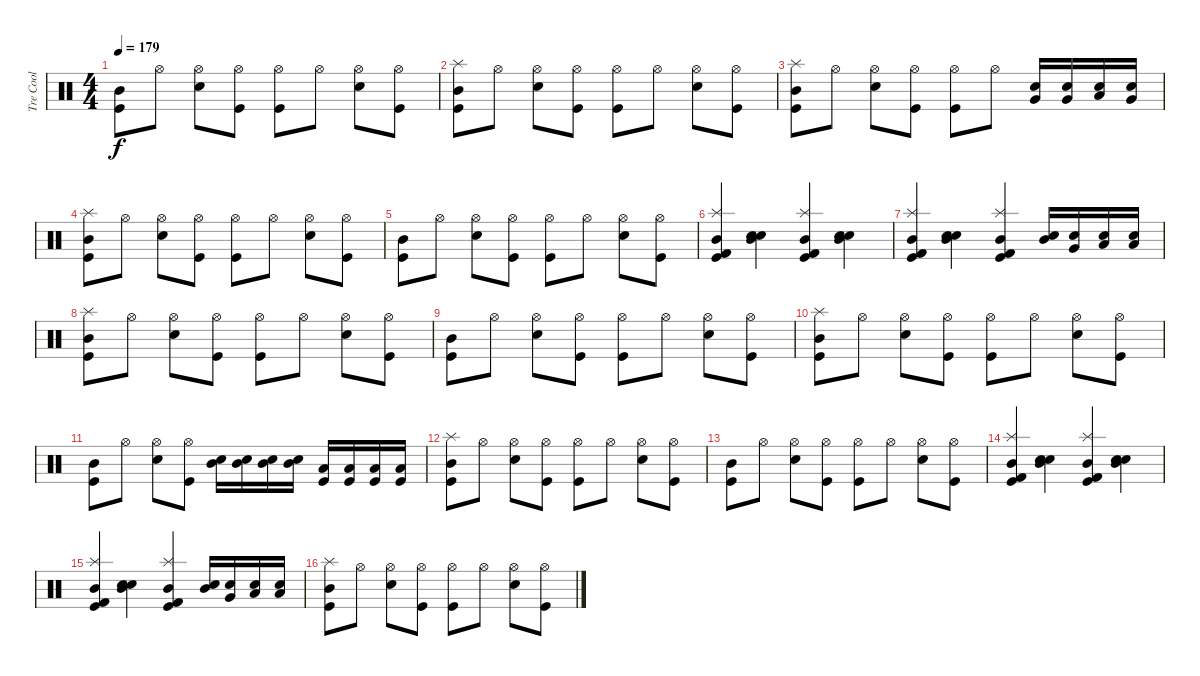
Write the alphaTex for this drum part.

\track ("Tre Cool" "Tre Cool") {instrument percussion}
\staff {score}
\articulation defaults
\ts (4 4)
\tempo 179
\clef neutral
\ks c
("Mid Tom (hit)" "Kick (hit)").8{dy f} "Hi-Hat (open)".8 ("Hi-Hat (open)" "Snare (hit) 2").8 ("Hi-Hat (open)" "Kick (hit)").8 ("Hi-Hat (open)" "Kick (hit)").8 "Hi-Hat (open)".8 ("Hi-Hat (open)" "Snare (hit) 2").8 ("Hi-Hat (open)" "Kick (hit)").8 |
("Splash (hit)" "Mid Tom (hit)" "Kick (hit)").8 "Hi-Hat (open)".8 ("Hi-Hat (open)" "Snare (hit) 2").8 ("Hi-Hat (open)" "Kick (hit)").8 ("Hi-Hat (open)" "Kick (hit)").8 "Hi-Hat (open)".8 ("Hi-Hat (open)" "Snare (hit) 2").8 ("Hi-Hat (open)" "Kick (hit)").8 |
("Splash (hit)" "Mid Tom (hit)" "Kick (hit)").8 "Hi-Hat (open)".8 ("Hi-Hat (open)" "Snare (hit) 2").8 ("Hi-Hat (open)" "Kick (hit)").8 ("Hi-Hat (open)" "Kick (hit)").8 "Hi-Hat (open)".8 ("Very Low Tom (hit)" "Snare (hit) 2").16 ("Very Low Tom (hit)" "Snare (hit) 2").16 ("Low Tom (hit)" "Snare (hit) 2").16 ("Very Low Tom (hit)" "Snare (hit) 2").16 |
("Splash (hit)" "Mid Tom (hit)" "Kick (hit)").8 "Hi-Hat (open)".8 ("Hi-Hat (open)" "Snare (hit) 2").8 ("Hi-Hat (open)" "Kick (hit)").8 ("Hi-Hat (open)" "Kick (hit)").8 "Hi-Hat (open)".8 ("Hi-Hat (open)" "Snare (hit) 2").8 ("Hi-Hat (open)" "Kick (hit)").8 |
("Mid Tom (hit)" "Kick (hit)").8 "Hi-Hat (open)".8 ("Hi-Hat (open)" "Snare (hit) 2").8 ("Hi-Hat (open)" "Kick (hit)").8 ("Hi-Hat (open)" "Kick (hit)").8 "Hi-Hat (open)".8 ("Hi-Hat (open)" "Snare (hit) 2").8 ("Hi-Hat (open)" "Kick (hit)").8 |
("Mid Tom (hit)" "Kick (hit)" "Splash (hit)" "Kick (hit) 2").4 ("Mid Tom (hit)" "Snare (hit) 2" "Electric Snare (hit)").4 ("Mid Tom (hit)" "Kick (hit)" "Splash (hit)" "Kick (hit) 2").4 ("Mid Tom (hit)" "Snare (hit) 2" "Electric Snare (hit)").4 |
("Mid Tom (hit)" "Kick (hit)" "Splash (hit)" "Kick (hit) 2").4 ("Mid Tom (hit)" "Snare (hit) 2" "Electric Snare (hit)").4 ("Mid Tom (hit)" "Kick (hit)" "Splash (hit)" "Kick (hit) 2").4 ("Electric Snare (hit)" "Mid Tom (hit)").16 ("Electric Snare (hit)" "Very Low Tom (hit)").16 ("Electric Snare (hit)" "Low Tom (hit)").16 ("Electric Snare (hit)" "Low Tom (hit)").16 |
("Splash (hit)" "Mid Tom (hit)" "Kick (hit)").8 "Hi-Hat (open)".8 ("Hi-Hat (open)" "Snare (hit) 2").8 ("Hi-Hat (open)" "Kick (hit)").8 ("Hi-Hat (open)" "Kick (hit)").8 "Hi-Hat (open)".8 ("Hi-Hat (open)" "Snare (hit) 2").8 ("Hi-Hat (open)" "Kick (hit)").8 |
("Mid Tom (hit)" "Kick (hit)").8 "Hi-Hat (open)".8 ("Hi-Hat (open)" "Snare (hit) 2").8 ("Hi-Hat (open)" "Kick (hit)").8 ("Hi-Hat (open)" "Kick (hit)").8 "Hi-Hat (open)".8 ("Hi-Hat (open)" "Snare (hit) 2").8 ("Hi-Hat (open)" "Kick (hit)").8 |
("Splash (hit)" "Mid Tom (hit)" "Kick (hit)").8 "Hi-Hat (open)".8 ("Hi-Hat (open)" "Snare (hit) 2").8 ("Hi-Hat (open)" "Kick (hit)").8 ("Hi-Hat (open)" "Kick (hit)").8 "Hi-Hat (open)".8 ("Hi-Hat (open)" "Snare (hit) 2").8 ("Hi-Hat (open)" "Kick (hit)").8 |
("Mid Tom (hit)" "Kick (hit)").8 "Hi-Hat (open)".8 ("Hi-Hat (open)" "Snare (hit) 2").8 ("Hi-Hat (open)" "Kick (hit)").8 ("Snare (hit) 2" "Mid Tom (hit)").16 ("Snare (hit) 2" "Mid Tom (hit)").16 ("Snare (hit) 2" "Mid Tom (hit)").16 ("Snare (hit) 2" "Mid Tom (hit)").16 ("Kick (hit)" "Low Floor Tom (hit)").16 ("Kick (hit)" "Low Floor Tom (hit)").16 ("Kick (hit)" "Low Floor Tom (hit)").16 ("Kick (hit)" "Low Floor Tom (hit)").16 |
("Splash (hit)" "Mid Tom (hit)" "Kick (hit)").8 "Hi-Hat (open)".8 ("Hi-Hat (open)" "Snare (hit) 2").8 ("Hi-Hat (open)" "Kick (hit)").8 ("Hi-Hat (open)" "Kick (hit)").8 "Hi-Hat (open)".8 ("Hi-Hat (open)" "Snare (hit) 2").8 ("Hi-Hat (open)" "Kick (hit)").8 |
("Mid Tom (hit)" "Kick (hit)").8 "Hi-Hat (open)".8 ("Hi-Hat (open)" "Snare (hit) 2").8 ("Hi-Hat (open)" "Kick (hit)").8 ("Hi-Hat (open)" "Kick (hit)").8 "Hi-Hat (open)".8 ("Hi-Hat (open)" "Snare (hit) 2").8 ("Hi-Hat (open)" "Kick (hit)").8 |
("Mid Tom (hit)" "Kick (hit)" "Splash (hit)" "Kick (hit) 2").4 ("Mid Tom (hit)" "Snare (hit) 2" "Electric Snare (hit)").4 ("Mid Tom (hit)" "Kick (hit)" "Splash (hit)" "Kick (hit) 2").4 ("Mid Tom (hit)" "Snare (hit) 2" "Electric Snare (hit)").4 |
("Mid Tom (hit)" "Kick (hit)" "Splash (hit)" "Kick (hit) 2").4 ("Mid Tom (hit)" "Snare (hit) 2" "Electric Snare (hit)").4 ("Mid Tom (hit)" "Kick (hit)" "Splash (hit)" "Kick (hit) 2").4 ("Electric Snare (hit)" "Mid Tom (hit)").16 ("Electric Snare (hit)" "Very Low Tom (hit)").16 ("Electric Snare (hit)" "Low Tom (hit)").16 ("Electric Snare (hit)" "Low Tom (hit)").16 |
("Splash (hit)" "Mid Tom (hit)" "Kick (hit)").8 "Hi-Hat (open)".8 ("Hi-Hat (open)" "Snare (hit) 2").8 ("Hi-Hat (open)" "Kick (hit)").8 ("Hi-Hat (open)" "Kick (hit)").8 "Hi-Hat (open)".8 ("Hi-Hat (open)" "Snare (hit) 2").8 ("Hi-Hat (open)" "Kick (hit)").8
